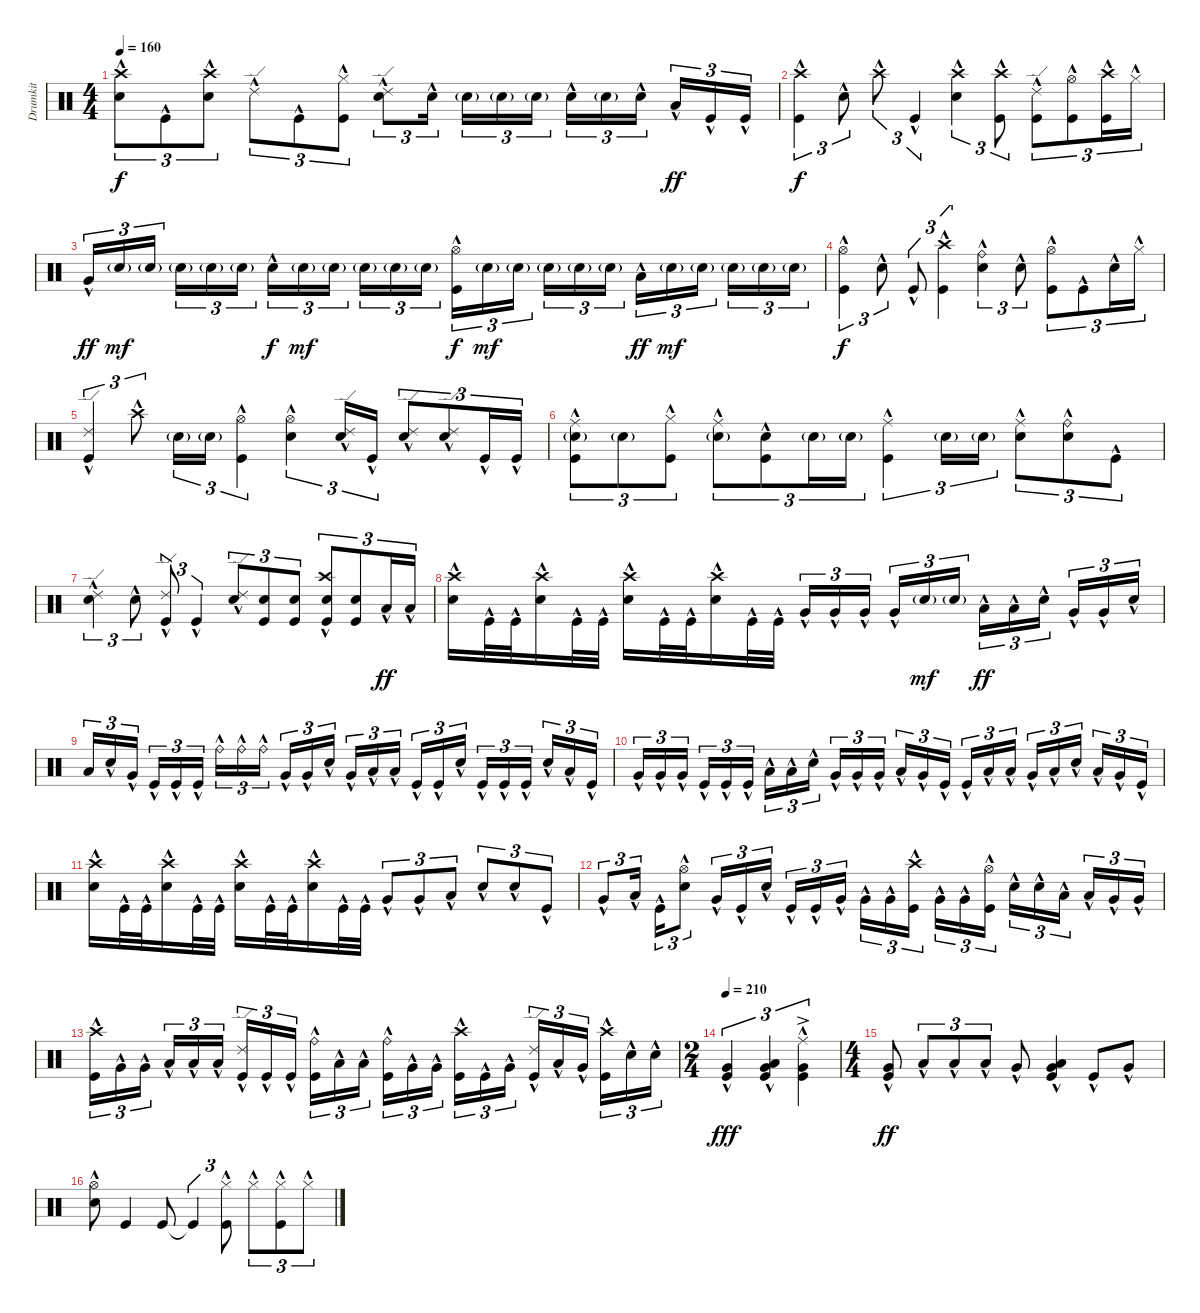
\track ("Drumkit" "Drumkit") {instrument percussion}
\staff {score}
\articulation defaults
\ts (4 4)
\tempo 160
\clef neutral
\ks c
("Snare (hit) 2"{hac} "Crash high (hit)"{hac}).8{tu (3 2) dy f} "Kick (hit)"{hac}.8{tu (3 2)} ("Snare (hit) 2"{hac} "Crash high (hit)"{hac}).8{tu (3 2)} "Ride (edge) 2"{hac}.8{tu (3 2)} "Kick (hit)"{hac}.8{tu (3 2)} ("Kick (hit)"{hac} "Hi-Hat (closed)"{hac}).8{tu (3 2)} ("Snare (hit) 2"{hac} "Ride (edge) 2"{hac}).8{tu (3 2)} "Snare (hit) 2"{hac}.16{tu (3 2)} "Snare (hit) 2"{g}.16{tu (3 2)} "Snare (hit) 2"{g}.16{tu (3 2)} "Snare (hit) 2"{g}.16{tu (3 2)} "Snare (hit) 2"{hac}.16{tu (3 2)} "Snare (hit) 2"{g}.16{tu (3 2)} "Snare (hit) 2"{hac}.16{tu (3 2)} "Low Tom (hit)"{hac}.16{tu (3 2) dy ff} "Kick (hit)"{hac}.16{tu (3 2)} "Kick (hit)"{hac}.16{tu (3 2)} |
("Kick (hit)"{hac} "Crash high (hit)"{hac}).4{tu (3 2) dy f} "Snare (hit) 2"{hac}.8{tu (3 2)} "Crash high (hit)"{hac}.8{tu (3 2)} "Kick (hit)"{hac}.4{tu (3 2)} ("Snare (hit) 2"{hac} "Crash high (hit)"{hac}).4{tu (3 2)} ("Kick (hit)"{hac} "Crash high (hit)"{hac}).8{tu (3 2)} ("Kick (hit)"{hac} "Ride (edge) 2"{hac}).8{tu (3 2)} ("Kick (hit)"{hac} "Hi-Hat (open)"{hac}).8{tu (3 2)} ("Kick (hit)"{hac} "Crash high (hit)"{hac}).16{tu (3 2)} "Hi-Hat (closed)"{hac}.16{tu (3 2)} |
"Very Low Tom (hit)"{hac}.16{tu (3 2) dy ff} "Snare (hit) 2"{g}.16{tu (3 2) dy mf} "Snare (hit) 2"{g}.16{tu (3 2)} "Snare (hit) 2"{g}.16{tu (3 2)} "Snare (hit) 2"{g}.16{tu (3 2)} "Snare (hit) 2"{g}.16{tu (3 2)} "Snare (hit) 2"{hac}.16{tu (3 2) dy f} "Snare (hit) 2"{g}.16{tu (3 2) dy mf} "Snare (hit) 2"{g}.16{tu (3 2)} "Snare (hit) 2"{g}.16{tu (3 2)} "Snare (hit) 2"{g}.16{tu (3 2)} "Snare (hit) 2"{g}.16{tu (3 2)} ("Hi-Hat (open)"{hac} "Kick (hit)"{hac}).16{tu (3 2) dy f} "Snare (hit) 2"{g}.16{tu (3 2) dy mf} "Snare (hit) 2"{g}.16{tu (3 2)} "Snare (hit) 2"{g}.16{tu (3 2)} "Snare (hit) 2"{g}.16{tu (3 2)} "Snare (hit) 2"{g}.16{tu (3 2)} "Low Tom (hit)"{hac}.16{tu (3 2) dy ff} "Snare (hit) 2"{g}.16{tu (3 2) dy mf} "Snare (hit) 2"{g}.16{tu (3 2)} "Snare (hit) 2"{g}.16{tu (3 2)} "Snare (hit) 2"{g}.16{tu (3 2)} "Snare (hit) 2"{g}.16{tu (3 2)} |
("Kick (hit)"{hac} "Hi-Hat (open)"{hac}).4{tu (3 2) dy f} "Snare (hit) 2"{hac}.8{tu (3 2)} "Kick (hit)"{hac}.8{tu (3 2)} ("Kick (hit)"{hac} "Crash high (hit)"{hac}).4{tu (3 2)} ("Ride (bell)"{hac} "Snare (hit) 2"{hac}).4{tu (3 2)} "Snare (hit) 2"{hac}.8{tu (3 2)} ("Hi-Hat (open)"{hac} "Kick (hit)"{hac}).8{tu (3 2)} "Kick (hit)"{hac}.8{tu (3 2)} "Snare (hit) 2"{hac}.16{tu (3 2)} "Hi-Hat (closed)"{hac}.16{tu (3 2)} |
("Kick (hit)"{hac} "Ride (edge) 2"{hac}).4{tu (3 2)} "Crash high (hit)"{hac}.8{tu (3 2)} "Snare (hit) 2"{g}.16{tu (3 2)} "Snare (hit) 2"{g}.16{tu (3 2)} ("Kick (hit)"{hac} "Hi-Hat (open)"{hac}).4{tu (3 2)} ("Snare (hit) 2"{hac} "Hi-Hat (open)"{hac}).4{tu (3 2)} ("Snare (hit) 2"{hac} "Ride (edge) 2"{hac}).16{tu (3 2)} "Kick (hit)"{hac}.16{tu (3 2)} ("Snare (hit) 2"{hac} "Ride (edge) 2"{hac}).8{tu (3 2)} ("Snare (hit) 2"{hac} "Ride (edge) 2"{hac}).8{tu (3 2)} "Kick (hit)"{hac}.16{tu (3 2)} "Kick (hit)"{hac}.16{tu (3 2)} |
("Kick (hit)"{hac} "Ride (middle)"{hac} "Snare (hit) 2"{g}).8{tu (3 2)} "Snare (hit) 2"{g}.8{tu (3 2)} ("Kick (hit)"{hac} "Hi-Hat (closed)"{hac}).8{tu (3 2)} ("Snare (hit) 2"{g} "Ride (middle)"{hac}).8{tu (3 2)} ("Kick (hit)"{hac} "Snare (hit) 2"{hac}).8{tu (3 2)} "Snare (hit) 2"{g}.16{tu (3 2)} "Snare (hit) 2"{g}.16{tu (3 2)} ("Ride (middle)"{hac} "Kick (hit)"{hac}).4{tu (3 2)} "Snare (hit) 2"{g}.16{tu (3 2)} "Snare (hit) 2"{g}.16{tu (3 2)} ("Snare (hit) 2"{hac} "Ride (middle)"{hac}).8{tu (3 2)} ("Snare (hit) 2"{hac} "Ride (bell)"{hac}).8{tu (3 2)} "Kick (hit)"{hac}.8{tu (3 2)} |
("Snare (hit) 2"{hac} "Ride (edge) 2"{hac}).4{tu (3 2)} "Snare (hit) 2"{hac}.8{tu (3 2)} ("Kick (hit)"{hac} "Ride (edge) 2"{hac}).8{tu (3 2)} "Kick (hit)"{hac}.4{tu (3 2)} ("Snare (hit) 2"{hac} "Ride (edge) 2"{hac}).8{tu (3 2)} ("Snare (hit) 2" "Kick (hit)").8{tu (3 2)} ("Snare (hit) 2" "Kick (hit)").8{tu (3 2)} ("Kick (hit)" "Snare (hit) 2" "Crash high (hit)"{hac}).8{tu (3 2)} ("Kick (hit)" "Snare (hit) 2").8{tu (3 2)} "Low Tom (hit)"{hac}.16{tu (3 2) dy ff} "Low Tom (hit)"{hac}.16{tu (3 2)} |
("Snare (hit) 2"{hac} "Crash high (hit)"{hac}).16 "Kick (hit)"{hac}.32 "Kick (hit)"{hac}.32 ("Snare (hit) 2"{hac} "Crash high (hit)"{hac}).16 "Kick (hit)"{hac}.32 "Kick (hit)"{hac}.32 ("Snare (hit) 2"{hac} "Crash high (hit)"{hac}).16 "Kick (hit)"{hac}.32 "Kick (hit)"{hac}.32 ("Snare (hit) 2"{hac} "Crash high (hit)"{hac}).16 "Kick (hit)"{hac}.32 "Kick (hit)"{hac}.32 "Very Low Tom (hit)"{hac}.16{tu (3 2)} "Very Low Tom (hit)"{hac}.16{tu (3 2)} "Very Low Tom (hit)"{hac}.16{tu (3 2)} "Very Low Tom (hit)"{hac}.16{tu (3 2)} "Snare (hit) 2"{g}.16{tu (3 2) dy mf} "Snare (hit) 2"{g}.16{tu (3 2)} "Low Tom (hit)"{hac}.16{tu (3 2) dy ff} "Low Tom (hit)"{hac}.16{tu (3 2)} "Snare (hit) 2"{hac}.16{tu (3 2)} "Very Low Tom (hit)"{hac}.16{tu (3 2)} "Very Low Tom (hit)"{hac}.16{tu (3 2)} "Snare (hit) 2"{hac}.16{tu (3 2)} |
"Low Tom (hit)".16{tu (3 2)} "Snare (hit) 2"{hac}.16{tu (3 2)} "Very Low Tom (hit)"{hac}.16{tu (3 2)} "Kick (hit)"{hac}.16{tu (3 2)} "Kick (hit)"{hac}.16{tu (3 2)} "Kick (hit)"{hac}.16{tu (3 2)} "Ride (bell)"{hac}.16{tu (3 2)} "Ride (bell)"{hac}.16{tu (3 2)} "Ride (bell)"{hac}.16{tu (3 2)} "Very Low Tom (hit)"{hac}.16{tu (3 2)} "Very Low Tom (hit)"{hac}.16{tu (3 2)} "Snare (hit) 2"{hac}.16{tu (3 2)} "Very Low Tom (hit)"{hac}.16{tu (3 2)} "Low Tom (hit)"{hac}.16{tu (3 2)} "Low Tom (hit)"{hac}.16{tu (3 2)} "Kick (hit)"{hac}.16{tu (3 2)} "Kick (hit)"{hac}.16{tu (3 2)} "Snare (hit) 2"{hac}.16{tu (3 2)} "Kick (hit)"{hac}.16{tu (3 2)} "Kick (hit)"{hac}.16{tu (3 2)} "Kick (hit)"{hac}.16{tu (3 2)} "Snare (hit) 2"{hac}.16{tu (3 2)} "Low Tom (hit)"{hac}.16{tu (3 2)} "Kick (hit)"{hac}.16{tu (3 2)} |
"Very Low Tom (hit)"{hac}.16{tu (3 2)} "Very Low Tom (hit)"{hac}.16{tu (3 2)} "Very Low Tom (hit)"{hac}.16{tu (3 2)} "Kick (hit)"{hac}.16{tu (3 2)} "Kick (hit)"{hac}.16{tu (3 2)} "Kick (hit)"{hac}.16{tu (3 2)} "Low Tom (hit)"{hac}.16{tu (3 2)} "Low Tom (hit)"{hac}.16{tu (3 2)} "Snare (hit) 2"{hac}.16{tu (3 2)} "Very Low Tom (hit)"{hac}.16{tu (3 2)} "Very Low Tom (hit)"{hac}.16{tu (3 2)} "Very Low Tom (hit)"{hac}.16{tu (3 2)} "Low Tom (hit)"{hac}.16{tu (3 2)} "Very Low Tom (hit)"{hac}.16{tu (3 2)} "Kick (hit)"{hac}.16{tu (3 2)} "Kick (hit)"{hac}.16{tu (3 2)} "Low Tom (hit)"{hac}.16{tu (3 2)} "Low Tom (hit)"{hac}.16{tu (3 2)} "Very Low Tom (hit)"{hac}.16{tu (3 2)} "Low Tom (hit)"{hac}.16{tu (3 2)} "Snare (hit) 2"{hac}.16{tu (3 2)} "Low Tom (hit)"{hac}.16{tu (3 2)} "Very Low Tom (hit)"{hac}.16{tu (3 2)} "Kick (hit)"{hac}.16{tu (3 2)} |
("Snare (hit) 2"{hac} "Crash high (hit)"{hac}).16 "Kick (hit)"{hac}.32 "Kick (hit)"{hac}.32 ("Snare (hit) 2"{hac} "Crash high (hit)"{hac}).16 "Kick (hit)"{hac}.32 "Kick (hit)"{hac}.32 ("Snare (hit) 2"{hac} "Crash high (hit)"{hac}).16 "Kick (hit)"{hac}.32 "Kick (hit)"{hac}.32 ("Snare (hit) 2"{hac} "Crash high (hit)"{hac}).16 "Kick (hit)"{hac}.32 "Kick (hit)"{hac}.32 "Very Low Tom (hit)"{hac}.8{tu (3 2)} "Very Low Tom (hit)"{hac}.8{tu (3 2)} "Low Tom (hit)"{hac}.8{tu (3 2)} "Snare (hit) 2"{hac}.8{tu (3 2)} "Snare (hit) 2"{hac}.8{tu (3 2)} "Kick (hit)"{hac}.8{tu (3 2)} |
"Very Low Tom (hit)"{hac}.8{tu (3 2)} "Low Tom (hit)"{hac}.16{tu (3 2)} "Kick (hit)"{hac}.16{tu (3 2)} ("Snare (hit) 2"{hac} "Hi-Hat (open)"{hac}).8{tu (3 2)} "Very Low Tom (hit)"{hac}.16{tu (3 2)} "Kick (hit)"{hac}.16{tu (3 2)} "Snare (hit) 2"{hac}.16{tu (3 2)} "Kick (hit)"{hac}.16{tu (3 2)} "Kick (hit)"{hac}.16{tu (3 2)} "Very Low Tom (hit)"{hac}.16{tu (3 2)} "Very Low Tom (hit)"{hac}.16{tu (3 2)} "Very Low Tom (hit)"{hac}.16{tu (3 2)} ("Kick (hit)"{hac} "Crash high (hit)"{hac}).16{tu (3 2)} "Very Low Tom (hit)"{hac}.16{tu (3 2)} "Very Low Tom (hit)"{hac}.16{tu (3 2)} ("Kick (hit)"{hac} "Hi-Hat (open)"{hac}).16{tu (3 2)} "Snare (hit) 2"{hac}.16{tu (3 2)} "Snare (hit) 2"{hac}.16{tu (3 2)} "Low Tom (hit)"{hac}.16{tu (3 2)} "Low Tom (hit)"{hac}.16{tu (3 2)} "Very Low Tom (hit)"{hac}.16{tu (3 2)} "Very Low Tom (hit)"{hac}.16{tu (3 2)} |
("Crash high (hit)"{hac} "Kick (hit)"{hac}).16{tu (3 2)} "Very Low Tom (hit)"{hac}.16{tu (3 2)} "Very Low Tom (hit)"{hac}.16{tu (3 2)} "Low Tom (hit)"{hac}.16{tu (3 2)} "Low Tom (hit)"{hac}.16{tu (3 2)} "Low Tom (hit)"{hac}.16{tu (3 2)} ("Kick (hit)"{hac} "Ride (edge) 2"{hac}).16{tu (3 2)} "Kick (hit)"{hac}.16{tu (3 2)} "Kick (hit)"{hac}.16{tu (3 2)} ("Kick (hit)"{hac} "Ride (bell)"{hac}).16{tu (3 2)} "Low Tom (hit)"{hac}.16{tu (3 2)} "Low Tom (hit)"{hac}.16{tu (3 2)} ("Ride (bell)"{hac} "Kick (hit)"{hac}).16{tu (3 2)} "Very Low Tom (hit)"{hac}.16{tu (3 2)} "Very Low Tom (hit)"{hac}.16{tu (3 2)} ("Kick (hit)"{hac} "Crash high (hit)"{hac}).16{tu (3 2)} "Kick (hit)"{hac}.16{tu (3 2)} "Very Low Tom (hit)"{hac}.16{tu (3 2)} ("Kick (hit)"{hac} "Ride (edge) 2"{hac}).16{tu (3 2)} "Low Tom (hit)"{hac}.16{tu (3 2)} "Very Low Tom (hit)"{hac}.16{tu (3 2)} ("Kick (hit)"{hac} "Crash high (hit)"{hac}).16{tu (3 2)} "Snare (hit) 2"{hac}.16{tu (3 2)} "Snare (hit) 2"{hac}.16{tu (3 2)} |
\ts (2 4)
\tempo 210
("Very Low Tom (hit)"{hac} "Kick (hit)"{hac}).4{tu (3 2) dy fff} ("Very Low Tom (hit)"{hac} "Kick (hit)"{hac} "Low Tom (hit)"{hac}).4{tu (3 2)} ("Very Low Tom (hit)"{hac} "Kick (hit)"{hac} "Ride (middle)"{ac}).4{tu (3 2)} |
\ts (4 4)
("Kick (hit)"{hac} "Very Low Tom (hit)"{hac}).8{dy ff} "Low Tom (hit)"{hac}.8{tu (3 2)} "Low Tom (hit)"{hac}.8{tu (3 2)} "Low Tom (hit)"{hac}.8{tu (3 2)} "Very Low Tom (hit)"{hac}.8 ("Low Tom (hit)"{hac} "Kick (hit)"{hac} "Very Low Tom (hit)"{hac}).4 "Kick (hit)"{hac}.8 "Very Low Tom (hit)"{hac}.8 |
("Snare (hit) 2" "Hi-Hat (open)"{hac}).8 "Kick (hit)".4 "Kick (hit)".8 "Kick (hit)"{t}.4{tu (3 2)} ("Kick (hit)"{hac} "Hi-Hat (closed)"{hac}).8{tu (3 2)} "Hi-Hat (closed)"{hac}.8{tu (3 2)} ("Kick (hit)"{hac} "Hi-Hat (closed)"{hac}).8{tu (3 2)} "Hi-Hat (closed)"{hac}.8{tu (3 2)}
